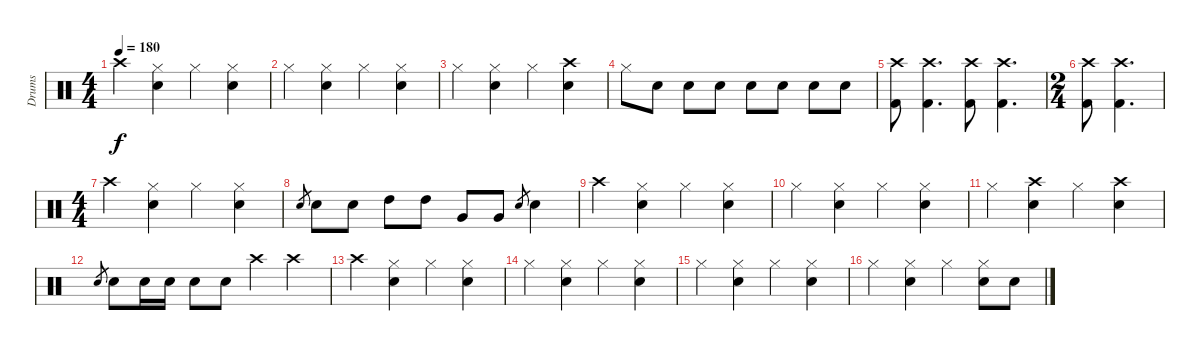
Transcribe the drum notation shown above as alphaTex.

\track ("Drums" "Drums") {instrument percussion}
\staff {score}
\articulation defaults
\ts (4 4)
\tempo 180
\clef neutral
\ks c "Crash high (hit)".4{dy f}
("Hi-Hat (closed)" "Snare (hit) 2").4 "Hi-Hat (closed)".4 ("Hi-Hat (closed)" "Snare (hit) 2").4 |
"Hi-Hat (closed)".4 ("Hi-Hat (closed)" "Snare (hit) 2").4 "Hi-Hat (closed)".4 ("Hi-Hat (closed)" "Snare (hit) 2").4 |
"Hi-Hat (closed)".4 ("Hi-Hat (closed)" "Snare (hit) 2").4 "Hi-Hat (closed)".4 ("Crash high (hit)" "Snare (hit) 2").4 |
"Hi-Hat (closed)".8 "Snare (hit) 2".8 "Snare (hit) 2".8 "Snare (hit) 2".8 "Snare (hit) 2".8 "Snare (hit) 2".8 "Snare (hit) 2".8 "Snare (hit) 2".8 |
("Crash high (hit)" "Kick (hit) 2").8 ("Crash high (hit)" "Kick (hit) 2").4{d} ("Crash high (hit)" "Kick (hit) 2").8 ("Crash high (hit)" "Kick (hit) 2").4{d} |
\ts (2 4)
("Crash high (hit)" "Kick (hit) 2").8 ("Crash high (hit)" "Kick (hit) 2").4{d} |
\ts (4 4)
"Crash high (hit)".4 ("Hi-Hat (closed)" "Snare (hit) 2").4 "Hi-Hat (closed)".4 ("Hi-Hat (closed)" "Snare (hit) 2").4 |
"Snare (hit) 2".8{gr} "Snare (hit) 2".8 "Snare (hit) 2".8 "High Tom (hit)".8 "High Tom (hit)".8 "Very Low Tom (hit)".8 "Very Low Tom (hit)".8 "Snare (hit) 2".8{gr} "Snare (hit) 2".4 |
"Crash high (hit)".4 ("Hi-Hat (closed)" "Snare (hit) 2").4 "Hi-Hat (closed)".4 ("Hi-Hat (closed)" "Snare (hit) 2").4 |
"Hi-Hat (closed)".4 ("Hi-Hat (closed)" "Snare (hit) 2").4 "Hi-Hat (closed)".4 ("Hi-Hat (closed)" "Snare (hit) 2").4 |
"Hi-Hat (closed)".4 ("Crash high (hit)" "Snare (hit) 2").4 "Hi-Hat (closed)".4 ("Crash high (hit)" "Snare (hit) 2").4 |
"Snare (hit) 2".8{gr} "Snare (hit) 2".8 "Snare (hit) 2".16 "Snare (hit) 2".16 "Snare (hit) 2".8 "Snare (hit) 2".8 "Crash high (hit)".4 "Crash high (hit)".4 |
"Crash high (hit)".4 ("Hi-Hat (closed)" "Snare (hit) 2").4 "Hi-Hat (closed)".4 ("Hi-Hat (closed)" "Snare (hit) 2").4 |
"Hi-Hat (closed)".4 ("Hi-Hat (closed)" "Snare (hit) 2").4 "Hi-Hat (closed)".4 ("Hi-Hat (closed)" "Snare (hit) 2").4 |
"Hi-Hat (closed)".4 ("Hi-Hat (closed)" "Snare (hit) 2").4 "Hi-Hat (closed)".4 ("Hi-Hat (closed)" "Snare (hit) 2").4 |
"Hi-Hat (closed)".4 ("Hi-Hat (closed)" "Snare (hit) 2").4 "Hi-Hat (closed)".4 ("Hi-Hat (closed)" "Snare (hit) 2").8 "Snare (hit) 2".8
